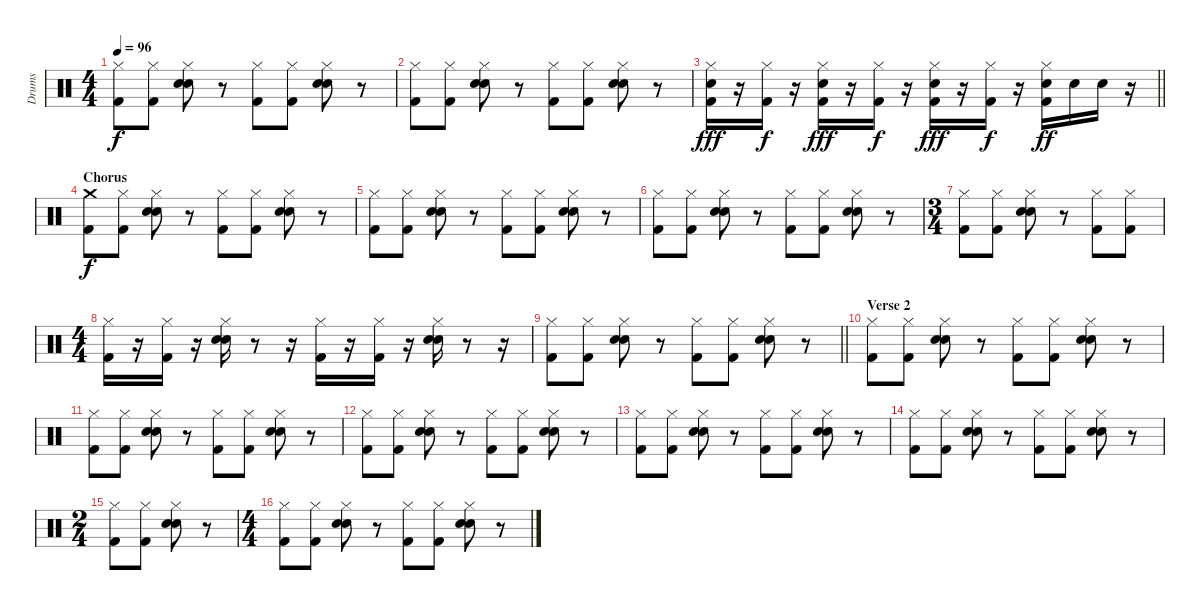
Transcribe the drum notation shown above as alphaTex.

\track ("Drums" "Drums") {instrument percussion}
\staff {score}
\articulation defaults
\ts (4 4)
\tempo 96
\clef neutral
\ks c
("Hi-Hat (closed)" "Kick (hit) 2").8{dy f} ("Hi-Hat (closed)" "Kick (hit) 2").8 ("Hi-Hat (closed)" "Hand Clap (hit)" "Snare (hit) 2").8 r.8 ("Hi-Hat (closed)" "Kick (hit) 2").8 ("Hi-Hat (closed)" "Kick (hit) 2").8 ("Hi-Hat (closed)" "Hand Clap (hit)" "Snare (hit) 2").8 r.8 |
("Hi-Hat (closed)" "Kick (hit) 2").8 ("Hi-Hat (closed)" "Kick (hit) 2").8 ("Hi-Hat (closed)" "Hand Clap (hit)" "Snare (hit) 2").8 r.8 ("Hi-Hat (closed)" "Kick (hit) 2").8 ("Hi-Hat (closed)" "Kick (hit) 2").8 ("Hi-Hat (closed)" "Hand Clap (hit)" "Snare (hit) 2").8 r.8 |
\barLineRight lightlight
("Hi-Hat (closed)" "Snare (hit) 2" "Kick (hit) 2").16{dy fff} r.16 ("Hi-Hat (closed)" "Kick (hit) 2").16{dy f} r.16 ("Hi-Hat (closed)" "Snare (hit) 2" "Kick (hit) 2").16{dy fff} r.16 ("Hi-Hat (closed)" "Kick (hit) 2").16{dy f} r.16 ("Hi-Hat (closed)" "Snare (hit) 2" "Kick (hit) 2").16{dy fff} r.16 ("Hi-Hat (closed)" "Kick (hit) 2").16{dy f} r.16 ("Hi-Hat (closed)" "Snare (hit) 2" "Kick (hit) 2").16{dy ff} "Snare (hit) 2".16 "Snare (hit) 2".16 r.16 |
\section ("" "Chorus")
("Crash medium (hit)" "Kick (hit) 2").8{dy f} ("Hi-Hat (closed)" "Kick (hit) 2").8 ("Hi-Hat (closed)" "Hand Clap (hit)" "Snare (hit) 2").8 r.8 ("Hi-Hat (closed)" "Kick (hit) 2").8 ("Hi-Hat (closed)" "Kick (hit) 2").8 ("Hi-Hat (closed)" "Hand Clap (hit)" "Snare (hit) 2").8 r.8 |
("Hi-Hat (closed)" "Kick (hit) 2").8 ("Hi-Hat (closed)" "Kick (hit) 2").8 ("Hi-Hat (closed)" "Hand Clap (hit)" "Snare (hit) 2").8 r.8 ("Hi-Hat (closed)" "Kick (hit) 2").8 ("Hi-Hat (closed)" "Kick (hit) 2").8 ("Hi-Hat (closed)" "Hand Clap (hit)" "Snare (hit) 2").8 r.8 |
("Hi-Hat (closed)" "Kick (hit) 2").8 ("Hi-Hat (closed)" "Kick (hit) 2").8 ("Hi-Hat (closed)" "Hand Clap (hit)" "Snare (hit) 2").8 r.8 ("Hi-Hat (closed)" "Kick (hit) 2").8 ("Hi-Hat (closed)" "Kick (hit) 2").8 ("Hi-Hat (closed)" "Hand Clap (hit)" "Snare (hit) 2").8 r.8 |
\ts (3 4)
("Hi-Hat (closed)" "Kick (hit) 2").8 ("Hi-Hat (closed)" "Kick (hit) 2").8 ("Hi-Hat (closed)" "Hand Clap (hit)" "Snare (hit) 2").8 r.8 ("Hi-Hat (closed)" "Kick (hit) 2").8 ("Hi-Hat (closed)" "Kick (hit) 2").8 |
\ts (4 4)
("Kick (hit) 2" "Hi-Hat (closed)").16 r.16 ("Kick (hit) 2" "Hi-Hat (closed)").16 r.16 ("Hi-Hat (closed)" "Snare (hit) 2" "Hand Clap (hit)").16 r.8 r.16 ("Kick (hit) 2" "Hi-Hat (closed)").16 r.16 ("Kick (hit) 2" "Hi-Hat (closed)").16 r.16 ("Hand Clap (hit)" "Snare (hit) 2" "Hi-Hat (closed)").16 r.8 r.16 |
\barLineRight lightlight
("Hi-Hat (closed)" "Kick (hit) 2").8 ("Hi-Hat (closed)" "Kick (hit) 2").8 ("Hi-Hat (closed)" "Hand Clap (hit)" "Snare (hit) 2").8 r.8 ("Hi-Hat (closed)" "Kick (hit) 2").8 ("Hi-Hat (closed)" "Kick (hit) 2").8 ("Hi-Hat (closed)" "Hand Clap (hit)" "Snare (hit) 2").8 r.8 |
\section ("" "Verse 2")
("Hi-Hat (closed)" "Kick (hit) 2").8 ("Hi-Hat (closed)" "Kick (hit) 2").8 ("Hi-Hat (closed)" "Hand Clap (hit)" "Snare (hit) 2").8 r.8 ("Hi-Hat (closed)" "Kick (hit) 2").8 ("Hi-Hat (closed)" "Kick (hit) 2").8 ("Hi-Hat (closed)" "Hand Clap (hit)" "Snare (hit) 2").8 r.8 |
("Hi-Hat (closed)" "Kick (hit) 2").8 ("Hi-Hat (closed)" "Kick (hit) 2").8 ("Hi-Hat (closed)" "Hand Clap (hit)" "Snare (hit) 2").8 r.8 ("Hi-Hat (closed)" "Kick (hit) 2").8 ("Hi-Hat (closed)" "Kick (hit) 2").8 ("Hi-Hat (closed)" "Hand Clap (hit)" "Snare (hit) 2").8 r.8 |
("Hi-Hat (closed)" "Kick (hit) 2").8 ("Hi-Hat (closed)" "Kick (hit) 2").8 ("Hi-Hat (closed)" "Hand Clap (hit)" "Snare (hit) 2").8 r.8 ("Hi-Hat (closed)" "Kick (hit) 2").8 ("Hi-Hat (closed)" "Kick (hit) 2").8 ("Hi-Hat (closed)" "Hand Clap (hit)" "Snare (hit) 2").8 r.8 |
("Hi-Hat (closed)" "Kick (hit) 2").8 ("Hi-Hat (closed)" "Kick (hit) 2").8 ("Hi-Hat (closed)" "Hand Clap (hit)" "Snare (hit) 2").8 r.8 ("Hi-Hat (closed)" "Kick (hit) 2").8 ("Hi-Hat (closed)" "Kick (hit) 2").8 ("Hi-Hat (closed)" "Hand Clap (hit)" "Snare (hit) 2").8 r.8 |
("Hi-Hat (closed)" "Kick (hit) 2").8 ("Hi-Hat (closed)" "Kick (hit) 2").8 ("Hi-Hat (closed)" "Hand Clap (hit)" "Snare (hit) 2").8 r.8 ("Hi-Hat (closed)" "Kick (hit) 2").8 ("Hi-Hat (closed)" "Kick (hit) 2").8 ("Hi-Hat (closed)" "Hand Clap (hit)" "Snare (hit) 2").8 r.8 |
\ts (2 4)
("Hi-Hat (closed)" "Kick (hit) 2").8 ("Hi-Hat (closed)" "Kick (hit) 2").8 ("Hi-Hat (closed)" "Hand Clap (hit)" "Snare (hit) 2").8 r.8 |
\ts (4 4)
("Hi-Hat (closed)" "Kick (hit) 2").8 ("Hi-Hat (closed)" "Kick (hit) 2").8 ("Hi-Hat (closed)" "Hand Clap (hit)" "Snare (hit) 2").8 r.8 ("Hi-Hat (closed)" "Kick (hit) 2").8 ("Hi-Hat (closed)" "Kick (hit) 2").8 ("Hi-Hat (closed)" "Hand Clap (hit)" "Snare (hit) 2").8 r.8
